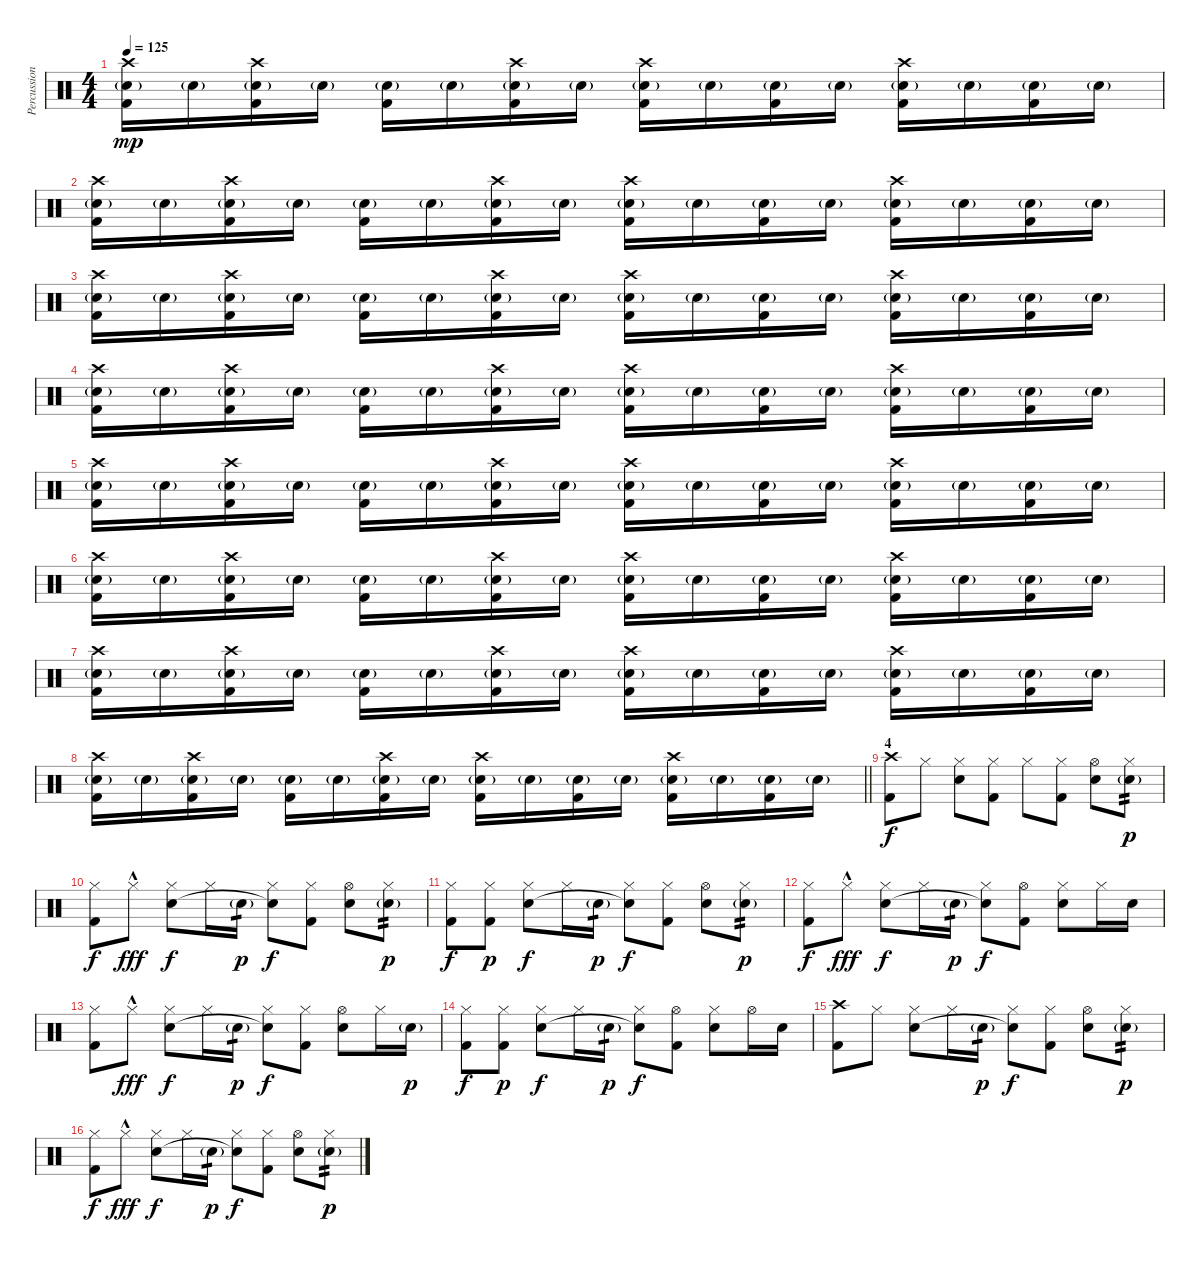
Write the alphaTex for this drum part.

\track ("Percussion" "Percussion") {instrument percussion}
\staff {score}
\articulation defaults
\ts (4 4)
\tempo 125
\clef neutral
\ks c
("Crash high (hit)" "Snare (hit) 2"{g} "Kick (hit) 2").16{dy mp} "Snare (hit) 2"{g}.16 ("Crash high (hit)" "Snare (hit) 2"{g} "Kick (hit) 2").16 "Snare (hit) 2"{g}.16 ("Snare (hit) 2"{g} "Kick (hit) 2").16 "Snare (hit) 2"{g}.16 ("Crash high (hit)" "Snare (hit) 2"{g} "Kick (hit) 2").16 "Snare (hit) 2"{g}.16 ("Crash high (hit)" "Snare (hit) 2"{g} "Kick (hit) 2").16 "Snare (hit) 2"{g}.16 ("Snare (hit) 2"{g} "Kick (hit) 2").16 "Snare (hit) 2"{g}.16 ("Crash high (hit)" "Snare (hit) 2"{g} "Kick (hit) 2").16 "Snare (hit) 2"{g}.16 ("Snare (hit) 2"{g} "Kick (hit) 2").16 "Snare (hit) 2"{g}.16 |
("Crash high (hit)" "Snare (hit) 2"{g} "Kick (hit) 2").16 "Snare (hit) 2"{g}.16 ("Crash high (hit)" "Snare (hit) 2"{g} "Kick (hit) 2").16 "Snare (hit) 2"{g}.16 ("Snare (hit) 2"{g} "Kick (hit) 2").16 "Snare (hit) 2"{g}.16 ("Crash high (hit)" "Snare (hit) 2"{g} "Kick (hit) 2").16 "Snare (hit) 2"{g}.16 ("Crash high (hit)" "Snare (hit) 2"{g} "Kick (hit) 2").16 "Snare (hit) 2"{g}.16 ("Snare (hit) 2"{g} "Kick (hit) 2").16 "Snare (hit) 2"{g}.16 ("Crash high (hit)" "Snare (hit) 2"{g} "Kick (hit) 2").16 "Snare (hit) 2"{g}.16 ("Snare (hit) 2"{g} "Kick (hit) 2").16 "Snare (hit) 2"{g}.16 |
("Crash high (hit)" "Snare (hit) 2"{g} "Kick (hit) 2").16 "Snare (hit) 2"{g}.16 ("Crash high (hit)" "Snare (hit) 2"{g} "Kick (hit) 2").16 "Snare (hit) 2"{g}.16 ("Snare (hit) 2"{g} "Kick (hit) 2").16 "Snare (hit) 2"{g}.16 ("Crash high (hit)" "Snare (hit) 2"{g} "Kick (hit) 2").16 "Snare (hit) 2"{g}.16 ("Crash high (hit)" "Snare (hit) 2"{g} "Kick (hit) 2").16 "Snare (hit) 2"{g}.16 ("Snare (hit) 2"{g} "Kick (hit) 2").16 "Snare (hit) 2"{g}.16 ("Crash high (hit)" "Snare (hit) 2"{g} "Kick (hit) 2").16 "Snare (hit) 2"{g}.16 ("Snare (hit) 2"{g} "Kick (hit) 2").16 "Snare (hit) 2"{g}.16 |
("Crash high (hit)" "Snare (hit) 2"{g} "Kick (hit) 2").16 "Snare (hit) 2"{g}.16 ("Crash high (hit)" "Snare (hit) 2"{g} "Kick (hit) 2").16 "Snare (hit) 2"{g}.16 ("Snare (hit) 2"{g} "Kick (hit) 2").16 "Snare (hit) 2"{g}.16 ("Crash high (hit)" "Snare (hit) 2"{g} "Kick (hit) 2").16 "Snare (hit) 2"{g}.16 ("Crash high (hit)" "Snare (hit) 2"{g} "Kick (hit) 2").16 "Snare (hit) 2"{g}.16 ("Snare (hit) 2"{g} "Kick (hit) 2").16 "Snare (hit) 2"{g}.16 ("Crash high (hit)" "Snare (hit) 2"{g} "Kick (hit) 2").16 "Snare (hit) 2"{g}.16 ("Snare (hit) 2"{g} "Kick (hit) 2").16 "Snare (hit) 2"{g}.16 |
("Crash high (hit)" "Snare (hit) 2"{g} "Kick (hit) 2").16 "Snare (hit) 2"{g}.16 ("Crash high (hit)" "Snare (hit) 2"{g} "Kick (hit) 2").16 "Snare (hit) 2"{g}.16 ("Snare (hit) 2"{g} "Kick (hit) 2").16 "Snare (hit) 2"{g}.16 ("Crash high (hit)" "Snare (hit) 2"{g} "Kick (hit) 2").16 "Snare (hit) 2"{g}.16 ("Crash high (hit)" "Snare (hit) 2"{g} "Kick (hit) 2").16 "Snare (hit) 2"{g}.16 ("Snare (hit) 2"{g} "Kick (hit) 2").16 "Snare (hit) 2"{g}.16 ("Crash high (hit)" "Snare (hit) 2"{g} "Kick (hit) 2").16 "Snare (hit) 2"{g}.16 ("Snare (hit) 2"{g} "Kick (hit) 2").16 "Snare (hit) 2"{g}.16 |
("Crash high (hit)" "Snare (hit) 2"{g} "Kick (hit) 2").16 "Snare (hit) 2"{g}.16 ("Crash high (hit)" "Snare (hit) 2"{g} "Kick (hit) 2").16 "Snare (hit) 2"{g}.16 ("Snare (hit) 2"{g} "Kick (hit) 2").16 "Snare (hit) 2"{g}.16 ("Crash high (hit)" "Snare (hit) 2"{g} "Kick (hit) 2").16 "Snare (hit) 2"{g}.16 ("Crash high (hit)" "Snare (hit) 2"{g} "Kick (hit) 2").16 "Snare (hit) 2"{g}.16 ("Snare (hit) 2"{g} "Kick (hit) 2").16 "Snare (hit) 2"{g}.16 ("Crash high (hit)" "Snare (hit) 2"{g} "Kick (hit) 2").16 "Snare (hit) 2"{g}.16 ("Snare (hit) 2"{g} "Kick (hit) 2").16 "Snare (hit) 2"{g}.16 |
("Crash high (hit)" "Snare (hit) 2"{g} "Kick (hit) 2").16 "Snare (hit) 2"{g}.16 ("Crash high (hit)" "Snare (hit) 2"{g} "Kick (hit) 2").16 "Snare (hit) 2"{g}.16 ("Snare (hit) 2"{g} "Kick (hit) 2").16 "Snare (hit) 2"{g}.16 ("Crash high (hit)" "Snare (hit) 2"{g} "Kick (hit) 2").16 "Snare (hit) 2"{g}.16 ("Crash high (hit)" "Snare (hit) 2"{g} "Kick (hit) 2").16 "Snare (hit) 2"{g}.16 ("Snare (hit) 2"{g} "Kick (hit) 2").16 "Snare (hit) 2"{g}.16 ("Crash high (hit)" "Snare (hit) 2"{g} "Kick (hit) 2").16 "Snare (hit) 2"{g}.16 ("Snare (hit) 2"{g} "Kick (hit) 2").16 "Snare (hit) 2"{g}.16 |
\barLineRight lightlight
("Crash high (hit)" "Snare (hit) 2"{g} "Kick (hit) 2").16 "Snare (hit) 2"{g}.16 ("Crash high (hit)" "Snare (hit) 2"{g} "Kick (hit) 2").16 "Snare (hit) 2"{g}.16 ("Snare (hit) 2"{g} "Kick (hit) 2").16 "Snare (hit) 2"{g}.16 ("Crash high (hit)" "Snare (hit) 2"{g} "Kick (hit) 2").16 "Snare (hit) 2"{g}.16 ("Crash high (hit)" "Snare (hit) 2"{g} "Kick (hit) 2").16 "Snare (hit) 2"{g}.16 ("Snare (hit) 2"{g} "Kick (hit) 2").16 "Snare (hit) 2"{g}.16 ("Crash high (hit)" "Snare (hit) 2"{g} "Kick (hit) 2").16 "Snare (hit) 2"{g}.16 ("Snare (hit) 2"{g} "Kick (hit) 2").16 "Snare (hit) 2"{g}.16 |
\section ("" "4")
("Crash high (hit)" "Kick (hit) 2").8{dy f} "Hi-Hat (closed)".8 ("Hi-Hat (closed)" "Snare (hit) 2").8 ("Hi-Hat (closed)" "Kick (hit) 2").8 "Hi-Hat (closed)".8 ("Hi-Hat (closed)" "Kick (hit) 2").8 ("Hi-Hat (open)" "Snare (hit) 2").8 ("Hi-Hat (closed)" "Snare (hit) 2"{g}).8{tp 2 dy p} |
("Hi-Hat (closed)" "Kick (hit) 2").8{dy f} "Hi-Hat (closed)"{hac}.8{dy fff} ("Hi-Hat (closed)" "Snare (hit) 2").8{dy f} "Hi-Hat (closed)".16 "Snare (hit) 2"{g}.16{tp 1 dy p} ("Hi-Hat (closed)" "Snare (hit)"{t}).8{dy f} ("Hi-Hat (closed)" "Kick (hit) 2").8 ("Hi-Hat (open)" "Snare (hit) 2").8 ("Hi-Hat (closed)" "Snare (hit) 2"{g}).8{tp 2 dy p} |
("Hi-Hat (closed)" "Kick (hit) 2").8{dy f} ("Hi-Hat (closed)" "Kick (hit) 2").8{dy p} ("Hi-Hat (closed)" "Snare (hit) 2").8{dy f} "Hi-Hat (closed)".16 "Snare (hit) 2"{g}.16{tp 1 dy p} ("Hi-Hat (closed)" "Snare (hit)"{t}).8{dy f} ("Hi-Hat (closed)" "Kick (hit) 2").8 ("Hi-Hat (open)" "Snare (hit) 2").8 ("Hi-Hat (closed)" "Snare (hit) 2"{g}).8{tp 2 dy p} |
("Hi-Hat (closed)" "Kick (hit) 2").8{dy f} "Hi-Hat (closed)"{hac}.8{dy fff} ("Hi-Hat (closed)" "Snare (hit) 2").8{dy f} "Hi-Hat (closed)".16 "Snare (hit) 2"{g}.16{tp 1 dy p} ("Hi-Hat (closed)" "Snare (hit)"{t}).8{dy f} ("Hi-Hat (open)" "Kick (hit) 2").8 ("Hi-Hat (closed)" "Snare (hit) 2").8 "Hi-Hat (closed)".16 "Snare (hit) 2".16 |
("Hi-Hat (closed)" "Kick (hit) 2").8 "Hi-Hat (closed)"{hac}.8{dy fff} ("Hi-Hat (closed)" "Snare (hit) 2").8{dy f} "Hi-Hat (closed)".16 "Snare (hit) 2"{g}.16{tp 1 dy p} ("Hi-Hat (closed)" "Snare (hit)"{t}).8{dy f} ("Hi-Hat (closed)" "Kick (hit) 2").8 ("Hi-Hat (open)" "Snare (hit) 2").8 "Hi-Hat (closed)".16 "Snare (hit) 2"{g}.16{dy p} |
("Hi-Hat (closed)" "Kick (hit) 2").8{dy f} ("Hi-Hat (closed)" "Kick (hit) 2").8{dy p} ("Hi-Hat (closed)" "Snare (hit) 2").8{dy f} "Hi-Hat (closed)".16 "Snare (hit) 2"{g}.16{tp 1 dy p} ("Hi-Hat (closed)" "Snare (hit)"{t}).8{dy f} ("Hi-Hat (open)" "Kick (hit) 2").8 ("Hi-Hat (closed)" "Snare (hit) 2").8 "Hi-Hat (open)".16 "Snare (hit) 2".16 |
("Crash high (hit)" "Kick (hit) 2").8 "Hi-Hat (closed)".8 ("Hi-Hat (closed)" "Snare (hit) 2").8 "Hi-Hat (closed)".16 "Snare (hit) 2"{g}.16{tp 1 dy p} ("Hi-Hat (closed)" "Snare (hit)"{t}).8{dy f} ("Hi-Hat (closed)" "Kick (hit) 2").8 ("Hi-Hat (open)" "Snare (hit) 2").8 ("Hi-Hat (closed)" "Snare (hit) 2"{g}).8{tp 2 dy p} |
("Hi-Hat (closed)" "Kick (hit) 2").8{dy f} "Hi-Hat (closed)"{hac}.8{dy fff} ("Hi-Hat (closed)" "Snare (hit) 2").8{dy f} "Hi-Hat (closed)".16 "Snare (hit) 2"{g}.16{tp 1 dy p} ("Hi-Hat (closed)" "Snare (hit)"{t}).8{dy f} ("Hi-Hat (closed)" "Kick (hit) 2").8 ("Hi-Hat (open)" "Snare (hit) 2").8 ("Hi-Hat (closed)" "Snare (hit) 2"{g}).8{tp 2 dy p}
